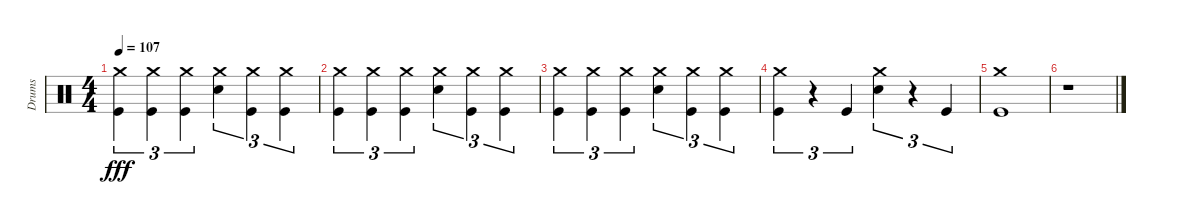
\track ("Drums" "Drums") {instrument percussion}
\staff {score}
\articulation defaults
\ts (4 4)
\tempo 107
\clef neutral
\ks c
("Crash medium (hit)" "Kick (hit)").4{tu (3 2) dy fff} ("Crash medium (hit)" "Kick (hit)").4{tu (3 2)} ("Crash medium (hit)" "Kick (hit)").4{tu (3 2)} ("Crash medium (hit)" "Electric Snare (hit)").4{tu (3 2)} ("Crash medium (hit)" "Kick (hit)").4{tu (3 2)} ("Crash medium (hit)" "Kick (hit)").4{tu (3 2)} |
("Crash medium (hit)" "Kick (hit)").4{tu (3 2)} ("Crash medium (hit)" "Kick (hit)").4{tu (3 2)} ("Crash medium (hit)" "Kick (hit)").4{tu (3 2)} ("Crash medium (hit)" "Electric Snare (hit)").4{tu (3 2)} ("Crash medium (hit)" "Kick (hit)").4{tu (3 2)} ("Crash medium (hit)" "Kick (hit)").4{tu (3 2)} |
("Crash medium (hit)" "Kick (hit)").4{tu (3 2)} ("Crash medium (hit)" "Kick (hit)").4{tu (3 2)} ("Crash medium (hit)" "Kick (hit)").4{tu (3 2)} ("Crash medium (hit)" "Electric Snare (hit)").4{tu (3 2)} ("Crash medium (hit)" "Kick (hit)").4{tu (3 2)} ("Crash medium (hit)" "Kick (hit)").4{tu (3 2)} |
("Crash medium (hit)" "Kick (hit)").4{tu (3 2)} r.4{tu (3 2)} "Kick (hit)".4{tu (3 2)} ("Crash medium (hit)" "Electric Snare (hit)").4{tu (3 2)} r.4{tu (3 2)} "Kick (hit)".4{tu (3 2)} |
("Crash medium (hit)" "Kick (hit)").1 |
r.1
